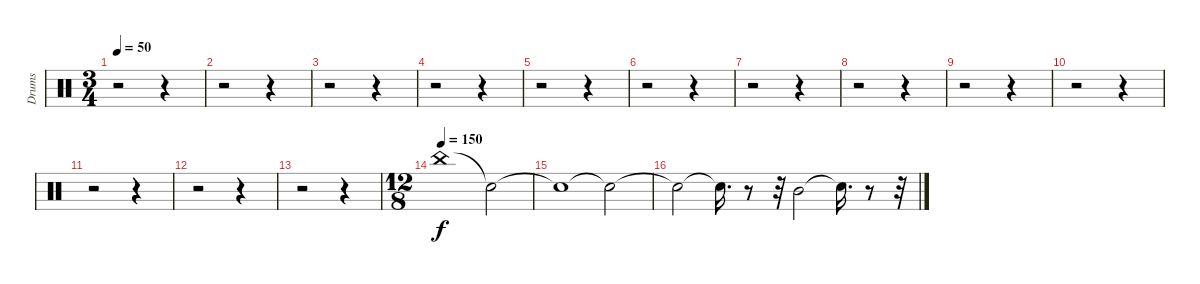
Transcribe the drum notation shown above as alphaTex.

\track ("Drums" "Drums") {instrument percussion}
\staff {score}
\articulation defaults
\ts (3 4)
\tempo 50
\clef neutral
\ks c
r.2{dy f} r.4 |
r.2 r.4 |
r.2 r.4 |
r.2 r.4 |
r.2 r.4 |
r.2 r.4 |
r.2 r.4 |
r.2 r.4 |
r.2 r.4 |
r.2 r.4 |
r.2 r.4 |
r.2 r.4 |
r.2 r.4 |
\ts (12 8)
\tempo (150)
"China (hit)".1 "Snare (hit)"{t}.2 |
"Snare (hit)"{t}.1 "Snare (hit)"{t}.2 |
"Snare (hit)"{t}.2 "Snare (hit)"{t}.16{d} r.8 r.32 "Mid Tom (hit)".2 "Snare (hit)"{t}.16{d} r.8 r.32
